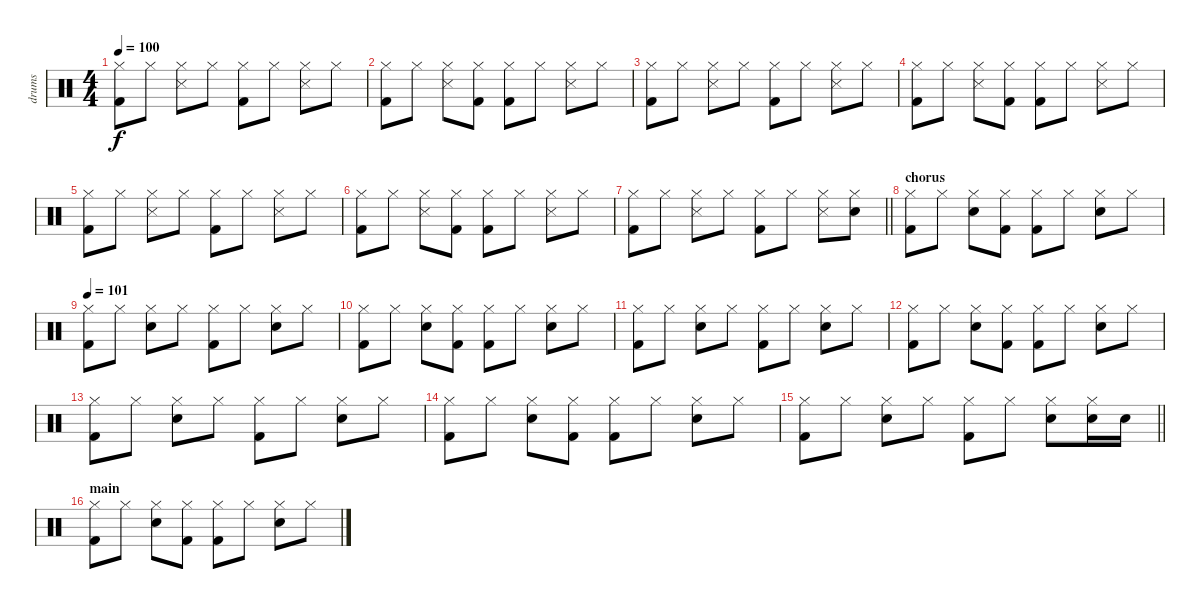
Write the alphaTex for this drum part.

\track ("drums" "drums") {instrument percussion}
\staff {score}
\articulation defaults
\ts (4 4)
\tempo 100
\clef neutral
\ks c
("Hi-Hat (closed)" "Kick (hit) 2").8{dy f} "Hi-Hat (closed)".8 ("Hi-Hat (closed)" "Snare (side stick) 3").8 "Hi-Hat (closed)".8 ("Hi-Hat (closed)" "Kick (hit) 2").8 "Hi-Hat (closed)".8 ("Hi-Hat (closed)" "Snare (side stick) 3").8 "Hi-Hat (closed)".8 |
("Hi-Hat (closed)" "Kick (hit) 2").8 "Hi-Hat (closed)".8 ("Hi-Hat (closed)" "Snare (side stick) 3").8 ("Hi-Hat (closed)" "Kick (hit) 2").8 ("Hi-Hat (closed)" "Kick (hit) 2").8 "Hi-Hat (closed)".8 ("Hi-Hat (closed)" "Snare (side stick) 3").8 "Hi-Hat (closed)".8 |
("Hi-Hat (closed)" "Kick (hit) 2").8 "Hi-Hat (closed)".8 ("Hi-Hat (closed)" "Snare (side stick) 3").8 "Hi-Hat (closed)".8 ("Hi-Hat (closed)" "Kick (hit) 2").8 "Hi-Hat (closed)".8 ("Hi-Hat (closed)" "Snare (side stick) 3").8 "Hi-Hat (closed)".8 |
("Hi-Hat (closed)" "Kick (hit) 2").8 "Hi-Hat (closed)".8 ("Hi-Hat (closed)" "Snare (side stick) 3").8 ("Hi-Hat (closed)" "Kick (hit) 2").8 ("Hi-Hat (closed)" "Kick (hit) 2").8 "Hi-Hat (closed)".8 ("Hi-Hat (closed)" "Snare (side stick) 3").8 "Hi-Hat (closed)".8 |
("Hi-Hat (closed)" "Kick (hit) 2").8 "Hi-Hat (closed)".8 ("Hi-Hat (closed)" "Snare (side stick) 3").8 "Hi-Hat (closed)".8 ("Hi-Hat (closed)" "Kick (hit) 2").8 "Hi-Hat (closed)".8 ("Hi-Hat (closed)" "Snare (side stick) 3").8 "Hi-Hat (closed)".8 |
("Hi-Hat (closed)" "Kick (hit) 2").8 "Hi-Hat (closed)".8 ("Hi-Hat (closed)" "Snare (side stick) 3").8 ("Hi-Hat (closed)" "Kick (hit) 2").8 ("Hi-Hat (closed)" "Kick (hit) 2").8 "Hi-Hat (closed)".8 ("Hi-Hat (closed)" "Snare (side stick) 3").8 "Hi-Hat (closed)".8 |
\barLineRight lightlight
("Hi-Hat (closed)" "Kick (hit) 2").8 "Hi-Hat (closed)".8 ("Hi-Hat (closed)" "Snare (side stick) 3").8 "Hi-Hat (closed)".8 ("Hi-Hat (closed)" "Kick (hit) 2").8 "Hi-Hat (closed)".8 ("Hi-Hat (closed)" "Snare (side stick) 3").8 ("Hi-Hat (closed)" "Snare (hit) 2").8 |
\section ("" "chorus")
("Hi-Hat (closed)" "Kick (hit) 2").8 "Hi-Hat (closed)".8 ("Hi-Hat (closed)" "Snare (hit) 2").8 ("Hi-Hat (closed)" "Kick (hit) 2").8 ("Hi-Hat (closed)" "Kick (hit) 2").8 "Hi-Hat (closed)".8 ("Hi-Hat (closed)" "Snare (hit) 2").8 "Hi-Hat (closed)".8 |
\tempo 101
("Hi-Hat (closed)" "Kick (hit) 2").8 "Hi-Hat (closed)".8 ("Hi-Hat (closed)" "Snare (hit) 2").8 "Hi-Hat (closed)".8 ("Hi-Hat (closed)" "Kick (hit) 2").8 "Hi-Hat (closed)".8 ("Hi-Hat (closed)" "Snare (hit) 2").8 "Hi-Hat (closed)".8 |
("Hi-Hat (closed)" "Kick (hit) 2").8 "Hi-Hat (closed)".8 ("Hi-Hat (closed)" "Snare (hit) 2").8 ("Hi-Hat (closed)" "Kick (hit) 2").8 ("Hi-Hat (closed)" "Kick (hit) 2").8 "Hi-Hat (closed)".8 ("Hi-Hat (closed)" "Snare (hit) 2").8 "Hi-Hat (closed)".8 |
("Hi-Hat (closed)" "Kick (hit) 2").8 "Hi-Hat (closed)".8 ("Hi-Hat (closed)" "Snare (hit) 2").8 "Hi-Hat (closed)".8 ("Hi-Hat (closed)" "Kick (hit) 2").8 "Hi-Hat (closed)".8 ("Hi-Hat (closed)" "Snare (hit) 2").8 "Hi-Hat (closed)".8 |
("Hi-Hat (closed)" "Kick (hit) 2").8 "Hi-Hat (closed)".8 ("Hi-Hat (closed)" "Snare (hit) 2").8 ("Hi-Hat (closed)" "Kick (hit) 2").8 ("Hi-Hat (closed)" "Kick (hit) 2").8 "Hi-Hat (closed)".8 ("Hi-Hat (closed)" "Snare (hit) 2").8 "Hi-Hat (closed)".8 |
("Hi-Hat (closed)" "Kick (hit) 2").8 "Hi-Hat (closed)".8 ("Hi-Hat (closed)" "Snare (hit) 2").8 "Hi-Hat (closed)".8 ("Hi-Hat (closed)" "Kick (hit) 2").8 "Hi-Hat (closed)".8 ("Hi-Hat (closed)" "Snare (hit) 2").8 "Hi-Hat (closed)".8 |
("Hi-Hat (closed)" "Kick (hit) 2").8 "Hi-Hat (closed)".8 ("Hi-Hat (closed)" "Snare (hit) 2").8 ("Hi-Hat (closed)" "Kick (hit) 2").8 ("Hi-Hat (closed)" "Kick (hit) 2").8 "Hi-Hat (closed)".8 ("Hi-Hat (closed)" "Snare (hit) 2").8 "Hi-Hat (closed)".8 |
\barLineRight lightlight
("Hi-Hat (closed)" "Kick (hit) 2").8 "Hi-Hat (closed)".8 ("Hi-Hat (closed)" "Snare (hit) 2").8 "Hi-Hat (closed)".8 ("Hi-Hat (closed)" "Kick (hit) 2").8 "Hi-Hat (closed)".8 ("Hi-Hat (closed)" "Snare (hit) 2").8 ("Hi-Hat (closed)" "Snare (hit) 2").16 "Snare (hit) 2".16 |
\section ("" "main")
("Hi-Hat (closed)" "Kick (hit) 2").8 "Hi-Hat (closed)".8 ("Hi-Hat (closed)" "Snare (hit) 2").8 ("Hi-Hat (closed)" "Kick (hit) 2").8 ("Hi-Hat (closed)" "Kick (hit) 2").8 "Hi-Hat (closed)".8 ("Hi-Hat (closed)" "Snare (hit) 2").8 "Hi-Hat (closed)".8
